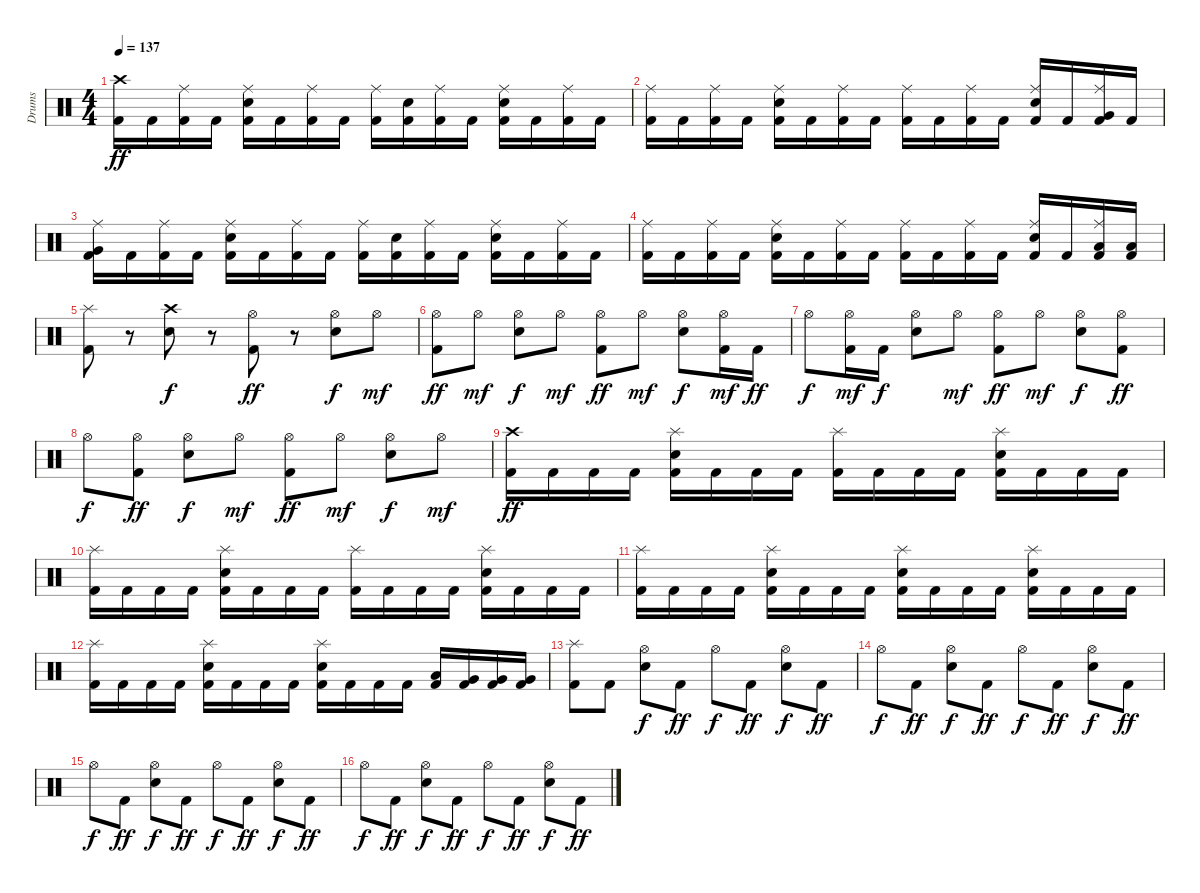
\track ("Drums" "Drums") {instrument percussion}
\staff {score}
\articulation defaults
\ts (4 4)
\tempo 137
\clef neutral
\ks c
("Crash high (hit)" "Kick (hit) 2").16{dy ff} "Kick (hit) 2".16 ("Ride (middle)" "Kick (hit) 2").16 "Kick (hit) 2".16 ("Ride (middle)" "Electric Snare (hit)" "Kick (hit) 2").16 "Kick (hit) 2".16 ("Ride (middle)" "Kick (hit) 2").16 "Kick (hit) 2".16 ("Ride (middle)" "Kick (hit) 2").16 ("Electric Snare (hit)" "Kick (hit) 2").16 ("Ride (middle)" "Kick (hit) 2").16 "Kick (hit) 2".16 ("Ride (middle)" "Electric Snare (hit)" "Kick (hit) 2").16 "Kick (hit) 2".16 ("Ride (middle)" "Kick (hit) 2").16 "Kick (hit) 2".16 |
("Ride (middle)" "Kick (hit) 2").16 "Kick (hit) 2".16 ("Ride (middle)" "Kick (hit) 2").16 "Kick (hit) 2".16 ("Ride (middle)" "Electric Snare (hit)" "Kick (hit) 2").16 "Kick (hit) 2".16 ("Ride (middle)" "Kick (hit) 2").16 "Kick (hit) 2".16 ("Ride (middle)" "Kick (hit) 2").16 "Kick (hit) 2".16 ("Ride (middle)" "Kick (hit) 2").16 "Kick (hit) 2".16 ("Ride (middle)" "Electric Snare (hit)" "Kick (hit) 2").16 "Kick (hit) 2".16 ("Ride (middle)" "Very Low Tom (hit)" "Kick (hit) 2").16 "Kick (hit) 2".16 |
("Ride (middle)" "Very Low Tom (hit)" "Kick (hit) 2").16 "Kick (hit) 2".16 ("Ride (middle)" "Kick (hit) 2").16 "Kick (hit) 2".16 ("Ride (middle)" "Electric Snare (hit)" "Kick (hit) 2").16 "Kick (hit) 2".16 ("Ride (middle)" "Kick (hit) 2").16 "Kick (hit) 2".16 ("Ride (middle)" "Kick (hit) 2").16 ("Electric Snare (hit)" "Kick (hit) 2").16 ("Ride (middle)" "Kick (hit) 2").16 "Kick (hit) 2".16 ("Ride (middle)" "Electric Snare (hit)" "Kick (hit) 2").16 "Kick (hit) 2".16 ("Ride (middle)" "Kick (hit) 2").16 "Kick (hit) 2".16 |
("Ride (middle)" "Kick (hit) 2").16 "Kick (hit) 2".16 ("Ride (middle)" "Kick (hit) 2").16 "Kick (hit) 2".16 ("Ride (middle)" "Electric Snare (hit)" "Kick (hit) 2").16 "Kick (hit) 2".16 ("Ride (middle)" "Kick (hit) 2").16 "Kick (hit) 2".16 ("Ride (middle)" "Kick (hit) 2").16 "Kick (hit) 2".16 ("Ride (middle)" "Kick (hit) 2").16 "Kick (hit) 2".16 ("Ride (middle)" "Electric Snare (hit)" "Kick (hit) 2").16 "Kick (hit) 2".16 ("Ride (middle)" "Low Floor Tom (hit)" "Kick (hit) 2").16 ("Low Floor Tom (hit)" "Kick (hit) 2").16 |
("Splash (hit)" "Kick (hit) 2").8 r.8 ("Crash high (hit)" "Electric Snare (hit)").8{dy f} r.8 ("Hi-Hat (open)" "Kick (hit) 2").8{dy ff} r.8 ("Hi-Hat (open)" "Electric Snare (hit)").8{dy f} "Hi-Hat (open)".8{dy mf} |
("Hi-Hat (open)" "Kick (hit) 2").8{dy ff} "Hi-Hat (open)".8{dy mf} ("Hi-Hat (open)" "Electric Snare (hit)").8{dy f} "Hi-Hat (open)".8{dy mf} ("Hi-Hat (open)" "Kick (hit) 2").8{dy ff} "Hi-Hat (open)".8{dy mf} ("Hi-Hat (open)" "Electric Snare (hit)").8{dy f} ("Hi-Hat (open)" "Kick (hit) 2").16{dy mf} "Kick (hit) 2".16{dy ff} |
"Hi-Hat (open)".8{dy f} ("Hi-Hat (open)" "Kick (hit) 2").16{dy mf} "Kick (hit) 2".16{dy f} ("Hi-Hat (open)" "Electric Snare (hit)").8 "Hi-Hat (open)".8{dy mf} ("Hi-Hat (open)" "Kick (hit) 2").8{dy ff} "Hi-Hat (open)".8{dy mf} ("Hi-Hat (open)" "Electric Snare (hit)").8{dy f} ("Hi-Hat (open)" "Kick (hit) 2").8{dy ff} |
"Hi-Hat (open)".8{dy f} ("Hi-Hat (open)" "Kick (hit) 2").8{dy ff} ("Hi-Hat (open)" "Electric Snare (hit)").8{dy f} "Hi-Hat (open)".8{dy mf} ("Hi-Hat (open)" "Kick (hit) 2").8{dy ff} "Hi-Hat (open)".8{dy mf} ("Hi-Hat (open)" "Electric Snare (hit)").8{dy f} "Hi-Hat (open)".8{dy mf} |
("Crash high (hit)" "Kick (hit) 2").16{dy ff} "Kick (hit) 2".16 "Kick (hit) 2".16 "Kick (hit) 2".16 ("Splash (hit)" "Electric Snare (hit)" "Kick (hit) 2").16 "Kick (hit) 2".16 "Kick (hit) 2".16 "Kick (hit) 2".16 ("Splash (hit)" "Kick (hit) 2").16 "Kick (hit) 2".16 "Kick (hit) 2".16 "Kick (hit) 2".16 ("Splash (hit)" "Electric Snare (hit)" "Kick (hit) 2").16 "Kick (hit) 2".16 "Kick (hit) 2".16 "Kick (hit) 2".16 |
("Splash (hit)" "Kick (hit) 2").16 "Kick (hit) 2".16 "Kick (hit) 2".16 "Kick (hit) 2".16 ("Splash (hit)" "Electric Snare (hit)" "Kick (hit) 2").16 "Kick (hit) 2".16 "Kick (hit) 2".16 "Kick (hit) 2".16 ("Splash (hit)" "Kick (hit) 2").16 "Kick (hit) 2".16 "Kick (hit) 2".16 "Kick (hit) 2".16 ("Splash (hit)" "Electric Snare (hit)" "Kick (hit) 2").16 "Kick (hit) 2".16 "Kick (hit) 2".16 "Kick (hit) 2".16 |
("Splash (hit)" "Kick (hit) 2").16 "Kick (hit) 2".16 "Kick (hit) 2".16 "Kick (hit) 2".16 ("Splash (hit)" "Electric Snare (hit)" "Kick (hit) 2").16 "Kick (hit) 2".16 "Kick (hit) 2".16 "Kick (hit) 2".16 ("Splash (hit)" "Electric Snare (hit)" "Kick (hit) 2").16 "Kick (hit) 2".16 "Kick (hit) 2".16 "Kick (hit) 2".16 ("Splash (hit)" "Electric Snare (hit)" "Kick (hit) 2").16 "Kick (hit) 2".16 "Kick (hit) 2".16 "Kick (hit) 2".16 |
("Splash (hit)" "Kick (hit) 2").16 "Kick (hit) 2".16 "Kick (hit) 2".16 "Kick (hit) 2".16 ("Splash (hit)" "Electric Snare (hit)" "Kick (hit) 2").16 "Kick (hit) 2".16 "Kick (hit) 2".16 "Kick (hit) 2".16 ("Splash (hit)" "Electric Snare (hit)" "Kick (hit) 2").16 "Kick (hit) 2".16 "Kick (hit) 2".16 "Kick (hit) 2".16 ("Low Tom (hit)" "Kick (hit) 2").16 ("Very Low Tom (hit)" "Kick (hit) 2").16 ("Very Low Tom (hit)" "Kick (hit) 2").16 ("Very Low Tom (hit)" "Kick (hit) 2").16 |
("Splash (hit)" "Kick (hit) 2").8 "Kick (hit) 2".8 ("Hi-Hat (open)" "Electric Snare (hit)").8{dy f} "Kick (hit) 2".8{dy ff} "Hi-Hat (open)".8{dy f} "Kick (hit) 2".8{dy ff} ("Hi-Hat (open)" "Electric Snare (hit)").8{dy f} "Kick (hit) 2".8{dy ff} |
"Hi-Hat (open)".8{dy f} "Kick (hit) 2".8{dy ff} ("Hi-Hat (open)" "Electric Snare (hit)").8{dy f} "Kick (hit) 2".8{dy ff} "Hi-Hat (open)".8{dy f} "Kick (hit) 2".8{dy ff} ("Hi-Hat (open)" "Electric Snare (hit)").8{dy f} "Kick (hit) 2".8{dy ff} |
"Hi-Hat (open)".8{dy f} "Kick (hit) 2".8{dy ff} ("Hi-Hat (open)" "Electric Snare (hit)").8{dy f} "Kick (hit) 2".8{dy ff} "Hi-Hat (open)".8{dy f} "Kick (hit) 2".8{dy ff} ("Hi-Hat (open)" "Electric Snare (hit)").8{dy f} "Kick (hit) 2".8{dy ff} |
"Hi-Hat (open)".8{dy f} "Kick (hit) 2".8{dy ff} ("Hi-Hat (open)" "Electric Snare (hit)").8{dy f} "Kick (hit) 2".8{dy ff} "Hi-Hat (open)".8{dy f} "Kick (hit) 2".8{dy ff} ("Hi-Hat (open)" "Electric Snare (hit)").8{dy f} "Kick (hit) 2".8{dy ff}
